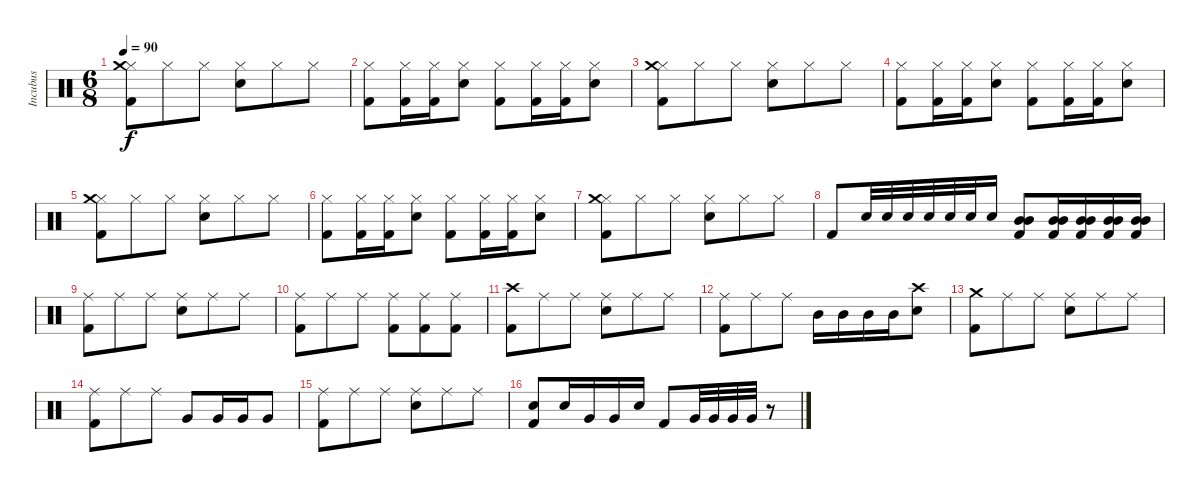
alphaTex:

\track ("Incubus" "Incubus") {instrument percussion}
\staff {score}
\articulation defaults
\ts (6 8)
\tempo 90
\clef neutral
\ks c
("Hi-Hat (closed)" "Crash medium (hit)" "Kick (hit) 2").8{dy f} "Hi-Hat (closed)".8 "Hi-Hat (closed)".8 ("Hi-Hat (closed)" "Electric Snare (hit)").8 "Hi-Hat (closed)".8 "Hi-Hat (closed)".8 |
("Hi-Hat (closed)" "Kick (hit) 2").8 ("Hi-Hat (closed)" "Kick (hit) 2").16 ("Hi-Hat (closed)" "Kick (hit) 2").16 ("Hi-Hat (closed)" "Electric Snare (hit)").8 ("Hi-Hat (closed)" "Kick (hit) 2").8 ("Hi-Hat (closed)" "Kick (hit) 2").16 ("Hi-Hat (closed)" "Kick (hit) 2").16 ("Hi-Hat (closed)" "Electric Snare (hit)").8 |
("Hi-Hat (closed)" "Crash medium (hit)" "Kick (hit) 2").8 "Hi-Hat (closed)".8 "Hi-Hat (closed)".8 ("Hi-Hat (closed)" "Electric Snare (hit)").8 "Hi-Hat (closed)".8 "Hi-Hat (closed)".8 |
("Hi-Hat (closed)" "Kick (hit) 2").8 ("Hi-Hat (closed)" "Kick (hit) 2").16 ("Hi-Hat (closed)" "Kick (hit) 2").16 ("Hi-Hat (closed)" "Electric Snare (hit)").8 ("Hi-Hat (closed)" "Kick (hit) 2").8 ("Hi-Hat (closed)" "Kick (hit) 2").16 ("Hi-Hat (closed)" "Kick (hit) 2").16 ("Hi-Hat (closed)" "Electric Snare (hit)").8 |
("Hi-Hat (closed)" "Crash medium (hit)" "Kick (hit) 2").8 "Hi-Hat (closed)".8 "Hi-Hat (closed)".8 ("Hi-Hat (closed)" "Electric Snare (hit)").8 "Hi-Hat (closed)".8 "Hi-Hat (closed)".8 |
("Hi-Hat (closed)" "Kick (hit) 2").8 ("Hi-Hat (closed)" "Kick (hit) 2").16 ("Hi-Hat (closed)" "Kick (hit) 2").16 ("Hi-Hat (closed)" "Electric Snare (hit)").8 ("Hi-Hat (closed)" "Kick (hit) 2").8 ("Hi-Hat (closed)" "Kick (hit) 2").16 ("Hi-Hat (closed)" "Kick (hit) 2").16 ("Hi-Hat (closed)" "Electric Snare (hit)").8 |
("Hi-Hat (closed)" "Crash medium (hit)" "Kick (hit) 2").8 "Hi-Hat (closed)".8 "Hi-Hat (closed)".8 ("Hi-Hat (closed)" "Electric Snare (hit)").8 "Hi-Hat (closed)".8 "Hi-Hat (closed)".8 |
"Kick (hit) 2".8 "Electric Snare (hit)".32 "Electric Snare (hit)".32 "Electric Snare (hit)".32 "Electric Snare (hit)".32 "Electric Snare (hit)".32 "Electric Snare (hit)".32 "Electric Snare (hit)".16 ("Mid Tom (hit)" "Mid Tom (hit)" "Kick (hit) 2").8 ("Mid Tom (hit)" "Mid Tom (hit)" "Kick (hit) 2").16 ("Mid Tom (hit)" "Mid Tom (hit)" "Kick (hit) 2").16 ("Mid Tom (hit)" "Mid Tom (hit)" "Kick (hit) 2").16 ("Mid Tom (hit)" "Mid Tom (hit)" "Kick (hit) 2").16 |
("Ride (middle)" "Kick (hit) 2").8 "Ride (middle)".8 "Ride (middle)".8 ("Ride (middle)" "Electric Snare (hit)").8 "Ride (middle)".8 "Ride (middle)".8 |
("Ride (middle)" "Kick (hit) 2").8 "Ride (middle)".8 "Ride (middle)".8 ("Ride (middle)" "Kick (hit) 2").8 ("Ride (middle)" "Kick (hit) 2").8 ("Ride (middle)" "Kick (hit) 2").8 |
("Crash high (hit)" "Kick (hit) 2").8 "Ride (middle)".8 "Ride (middle)".8 ("Ride (middle)" "Electric Snare (hit)").8 "Ride (middle)".8 "Ride (middle)".8 |
("Ride (middle)" "Kick (hit) 2").8 "Ride (middle)".8 "Ride (middle)".8 "Mid Tom (hit)".16 "Mid Tom (hit)".16 "Mid Tom (hit)".16 "Mid Tom (hit)".16 ("Crash high (hit)" "Electric Snare (hit)").8 |
("Crash medium (hit)" "Kick (hit) 2").8 "Ride (middle)".8 "Ride (middle)".8 ("Ride (middle)" "Electric Snare (hit)").8 "Ride (middle)".8 "Ride (middle)".8 |
("Ride (middle)" "Kick (hit) 2").8 "Ride (middle)".8 "Ride (middle)".8 "Very Low Tom (hit)".8 "Very Low Tom (hit)".16 "Very Low Tom (hit)".16 "Very Low Tom (hit)".8 |
("Ride (middle)" "Kick (hit) 2").8 "Ride (middle)".8 "Ride (middle)".8 ("Ride (middle)" "Electric Snare (hit)").8 "Ride (middle)".8 "Ride (middle)".8 |
("Electric Snare (hit)" "Kick (hit) 2").8 "Electric Snare (hit)".16 "Very Low Tom (hit)".16 "Very Low Tom (hit)".16 "Electric Snare (hit)".16 "Kick (hit) 2".8 "Very Low Tom (hit)".32 "Very Low Tom (hit)".32 "Very Low Tom (hit)".32 "Very Low Tom (hit)".32 r.8
